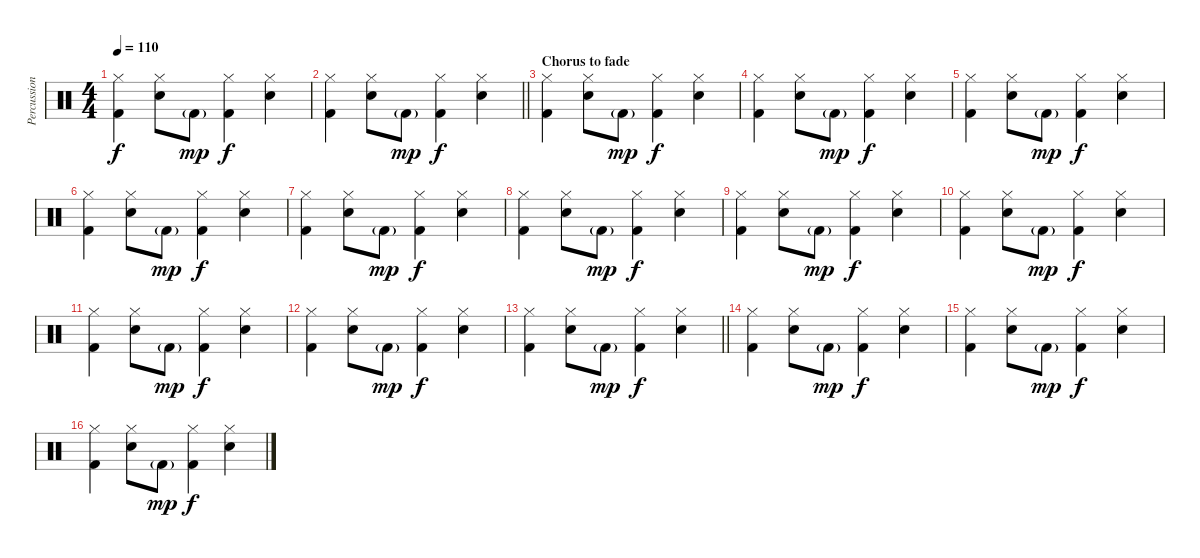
\track ("Percussion" "Percussion") {instrument percussion}
\staff {score}
\articulation defaults
\ts (4 4)
\tempo 110
\clef neutral
\ks c
("Hi-Hat (closed)" "Kick (hit) 2").4{dy f} ("Hi-Hat (closed)" "Snare (hit) 2").8 "Kick (hit) 2"{g}.8{dy mp} ("Hi-Hat (closed)" "Kick (hit) 2").4{dy f} ("Hi-Hat (closed)" "Snare (hit) 2").4 |
\barLineRight lightlight
("Hi-Hat (closed)" "Kick (hit) 2").4 ("Hi-Hat (closed)" "Snare (hit) 2").8 "Kick (hit) 2"{g}.8{dy mp} ("Hi-Hat (closed)" "Kick (hit) 2").4{dy f} ("Hi-Hat (closed)" "Snare (hit) 2").4 |
\section ("" "Chorus to fade")
("Hi-Hat (closed)" "Kick (hit) 2").4 ("Hi-Hat (closed)" "Snare (hit) 2").8 "Kick (hit) 2"{g}.8{dy mp} ("Hi-Hat (closed)" "Kick (hit) 2").4{dy f} ("Hi-Hat (closed)" "Snare (hit) 2").4 |
("Hi-Hat (closed)" "Kick (hit) 2").4 ("Hi-Hat (closed)" "Snare (hit) 2").8 "Kick (hit) 2"{g}.8{dy mp} ("Hi-Hat (closed)" "Kick (hit) 2").4{dy f} ("Hi-Hat (closed)" "Snare (hit) 2").4 |
("Hi-Hat (closed)" "Kick (hit) 2").4 ("Hi-Hat (closed)" "Snare (hit) 2").8 "Kick (hit) 2"{g}.8{dy mp} ("Hi-Hat (closed)" "Kick (hit) 2").4{dy f} ("Hi-Hat (closed)" "Snare (hit) 2").4 |
("Hi-Hat (closed)" "Kick (hit) 2").4 ("Hi-Hat (closed)" "Snare (hit) 2").8 "Kick (hit) 2"{g}.8{dy mp} ("Hi-Hat (closed)" "Kick (hit) 2").4{dy f} ("Hi-Hat (closed)" "Snare (hit) 2").4 |
("Hi-Hat (closed)" "Kick (hit) 2").4 ("Hi-Hat (closed)" "Snare (hit) 2").8 "Kick (hit) 2"{g}.8{dy mp} ("Hi-Hat (closed)" "Kick (hit) 2").4{dy f} ("Hi-Hat (closed)" "Snare (hit) 2").4 |
("Hi-Hat (closed)" "Kick (hit) 2").4 ("Hi-Hat (closed)" "Snare (hit) 2").8 "Kick (hit) 2"{g}.8{dy mp} ("Hi-Hat (closed)" "Kick (hit) 2").4{dy f} ("Hi-Hat (closed)" "Snare (hit) 2").4 |
("Hi-Hat (closed)" "Kick (hit) 2").4 ("Hi-Hat (closed)" "Snare (hit) 2").8 "Kick (hit) 2"{g}.8{dy mp} ("Hi-Hat (closed)" "Kick (hit) 2").4{dy f} ("Hi-Hat (closed)" "Snare (hit) 2").4 |
("Hi-Hat (closed)" "Kick (hit) 2").4 ("Hi-Hat (closed)" "Snare (hit) 2").8 "Kick (hit) 2"{g}.8{dy mp} ("Hi-Hat (closed)" "Kick (hit) 2").4{dy f} ("Hi-Hat (closed)" "Snare (hit) 2").4 |
("Hi-Hat (closed)" "Kick (hit) 2").4 ("Hi-Hat (closed)" "Snare (hit) 2").8 "Kick (hit) 2"{g}.8{dy mp} ("Hi-Hat (closed)" "Kick (hit) 2").4{dy f} ("Hi-Hat (closed)" "Snare (hit) 2").4 |
("Hi-Hat (closed)" "Kick (hit) 2").4 ("Hi-Hat (closed)" "Snare (hit) 2").8 "Kick (hit) 2"{g}.8{dy mp} ("Hi-Hat (closed)" "Kick (hit) 2").4{dy f} ("Hi-Hat (closed)" "Snare (hit) 2").4 |
\barLineRight lightlight
("Hi-Hat (closed)" "Kick (hit) 2").4 ("Hi-Hat (closed)" "Snare (hit) 2").8 "Kick (hit) 2"{g}.8{dy mp} ("Hi-Hat (closed)" "Kick (hit) 2").4{dy f} ("Hi-Hat (closed)" "Snare (hit) 2").4 |
("Hi-Hat (closed)" "Kick (hit) 2").4 ("Hi-Hat (closed)" "Snare (hit) 2").8 "Kick (hit) 2"{g}.8{dy mp} ("Hi-Hat (closed)" "Kick (hit) 2").4{dy f} ("Hi-Hat (closed)" "Snare (hit) 2").4 |
("Hi-Hat (closed)" "Kick (hit) 2").4 ("Hi-Hat (closed)" "Snare (hit) 2").8 "Kick (hit) 2"{g}.8{dy mp} ("Hi-Hat (closed)" "Kick (hit) 2").4{dy f} ("Hi-Hat (closed)" "Snare (hit) 2").4 |
("Hi-Hat (closed)" "Kick (hit) 2").4 ("Hi-Hat (closed)" "Snare (hit) 2").8 "Kick (hit) 2"{g}.8{dy mp} ("Hi-Hat (closed)" "Kick (hit) 2").4{dy f} ("Hi-Hat (closed)" "Snare (hit) 2").4
